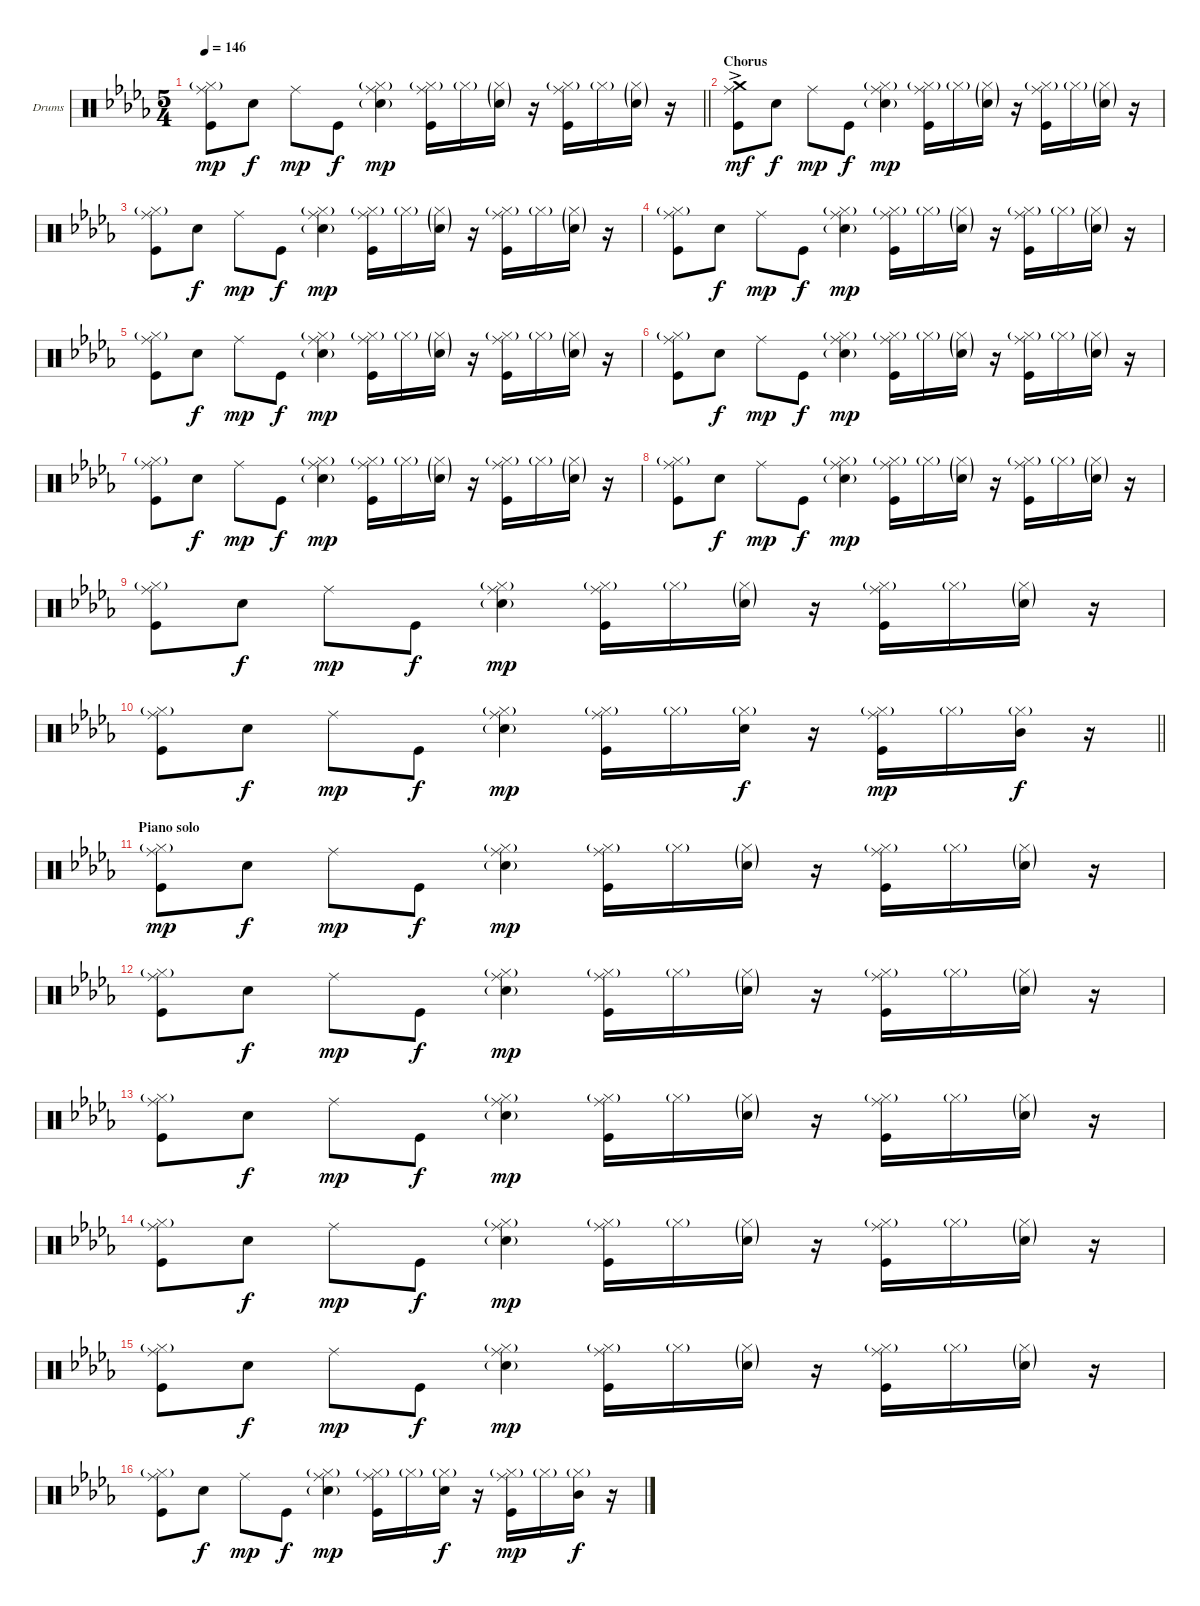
\bracketExtendMode groupsimilarinstruments
\firstSystemTrackNameOrientation horizontal
\otherSystemsTrackNameOrientation horizontal
\track ("Drumkit" "Drums") {instrument percussion}
\staff {score}
\articulation defaults
\ts (5 4)
\tempo 146
\clef neutral
\barLineRight lightlight
\ks db
("Hi-Hat (closed)"{g} "Ride (middle)" "Kick (hit)").8{dy mp} "Snare (hit) 2".8{dy f} "Ride (middle)".8{dy mp} "Kick (hit)".8{dy f} ("Hi-Hat (closed)"{g} "Ride (middle)" "Snare (hit) 2"{g}).4{dy mp} ("Hi-Hat (closed)"{g} "Ride (middle)" "Kick (hit)").16 "Hi-Hat (closed)"{g}.16 ("Hi-Hat (closed)"{g} "Snare (hit) 2"{g}).16 r.16 ("Hi-Hat (closed)"{g} "Ride (middle)" "Kick (hit)").16 "Hi-Hat (closed)"{g}.16 ("Hi-Hat (closed)"{g} "Snare (hit) 2"{g}).16 r.16 |
\section ("" "Chorus")
("Crash medium (hit)"{ac} "Ride (middle)" "Kick (hit)").8{dy mf} "Snare (hit) 2".8{dy f} "Ride (middle)".8{dy mp} "Kick (hit)".8{dy f} ("Hi-Hat (closed)"{g} "Ride (middle)" "Snare (hit) 2"{g}).4{dy mp} ("Hi-Hat (closed)"{g} "Ride (middle)" "Kick (hit)").16 "Hi-Hat (closed)"{g}.16 ("Hi-Hat (closed)"{g} "Snare (hit) 2"{g}).16 r.16 ("Hi-Hat (closed)"{g} "Ride (middle)" "Kick (hit)").16 "Hi-Hat (closed)"{g}.16 ("Hi-Hat (closed)"{g} "Snare (hit) 2"{g}).16 r.16 |
("Hi-Hat (closed)"{g} "Ride (middle)" "Kick (hit)").8 "Snare (hit) 2".8{dy f} "Ride (middle)".8{dy mp} "Kick (hit)".8{dy f} ("Hi-Hat (closed)"{g} "Ride (middle)" "Snare (hit) 2"{g}).4{dy mp} ("Hi-Hat (closed)"{g} "Ride (middle)" "Kick (hit)").16 "Hi-Hat (closed)"{g}.16 ("Hi-Hat (closed)"{g} "Snare (hit) 2"{g}).16 r.16 ("Hi-Hat (closed)"{g} "Ride (middle)" "Kick (hit)").16 "Hi-Hat (closed)"{g}.16 ("Hi-Hat (closed)"{g} "Snare (hit) 2"{g}).16 r.16 |
("Hi-Hat (closed)"{g} "Ride (middle)" "Kick (hit)").8 "Snare (hit) 2".8{dy f} "Ride (middle)".8{dy mp} "Kick (hit)".8{dy f} ("Hi-Hat (closed)"{g} "Ride (middle)" "Snare (hit) 2"{g}).4{dy mp} ("Hi-Hat (closed)"{g} "Ride (middle)" "Kick (hit)").16 "Hi-Hat (closed)"{g}.16 ("Hi-Hat (closed)"{g} "Snare (hit) 2"{g}).16 r.16 ("Hi-Hat (closed)"{g} "Ride (middle)" "Kick (hit)").16 "Hi-Hat (closed)"{g}.16 ("Hi-Hat (closed)"{g} "Snare (hit) 2"{g}).16 r.16 |
("Hi-Hat (closed)"{g} "Ride (middle)" "Kick (hit)").8 "Snare (hit) 2".8{dy f} "Ride (middle)".8{dy mp} "Kick (hit)".8{dy f} ("Hi-Hat (closed)"{g} "Ride (middle)" "Snare (hit) 2"{g}).4{dy mp} ("Hi-Hat (closed)"{g} "Ride (middle)" "Kick (hit)").16 "Hi-Hat (closed)"{g}.16 ("Hi-Hat (closed)"{g} "Snare (hit) 2"{g}).16 r.16 ("Hi-Hat (closed)"{g} "Ride (middle)" "Kick (hit)").16 "Hi-Hat (closed)"{g}.16 ("Hi-Hat (closed)"{g} "Snare (hit) 2"{g}).16 r.16 |
("Hi-Hat (closed)"{g} "Ride (middle)" "Kick (hit)").8 "Snare (hit) 2".8{dy f} "Ride (middle)".8{dy mp} "Kick (hit)".8{dy f} ("Hi-Hat (closed)"{g} "Ride (middle)" "Snare (hit) 2"{g}).4{dy mp} ("Hi-Hat (closed)"{g} "Ride (middle)" "Kick (hit)").16 "Hi-Hat (closed)"{g}.16 ("Hi-Hat (closed)"{g} "Snare (hit) 2"{g}).16 r.16 ("Hi-Hat (closed)"{g} "Ride (middle)" "Kick (hit)").16 "Hi-Hat (closed)"{g}.16 ("Hi-Hat (closed)"{g} "Snare (hit) 2"{g}).16 r.16 |
("Hi-Hat (closed)"{g} "Ride (middle)" "Kick (hit)").8 "Snare (hit) 2".8{dy f} "Ride (middle)".8{dy mp} "Kick (hit)".8{dy f} ("Hi-Hat (closed)"{g} "Ride (middle)" "Snare (hit) 2"{g}).4{dy mp} ("Hi-Hat (closed)"{g} "Ride (middle)" "Kick (hit)").16 "Hi-Hat (closed)"{g}.16 ("Hi-Hat (closed)"{g} "Snare (hit) 2"{g}).16 r.16 ("Hi-Hat (closed)"{g} "Ride (middle)" "Kick (hit)").16 "Hi-Hat (closed)"{g}.16 ("Hi-Hat (closed)"{g} "Snare (hit) 2"{g}).16 r.16 |
("Hi-Hat (closed)"{g} "Ride (middle)" "Kick (hit)").8 "Snare (hit) 2".8{dy f} "Ride (middle)".8{dy mp} "Kick (hit)".8{dy f} ("Hi-Hat (closed)"{g} "Ride (middle)" "Snare (hit) 2"{g}).4{dy mp} ("Hi-Hat (closed)"{g} "Ride (middle)" "Kick (hit)").16 "Hi-Hat (closed)"{g}.16 ("Hi-Hat (closed)"{g} "Snare (hit) 2"{g}).16 r.16 ("Hi-Hat (closed)"{g} "Ride (middle)" "Kick (hit)").16 "Hi-Hat (closed)"{g}.16 ("Hi-Hat (closed)"{g} "Snare (hit) 2"{g}).16 r.16 |
("Hi-Hat (closed)"{g} "Ride (middle)" "Kick (hit)").8 "Snare (hit) 2".8{dy f} "Ride (middle)".8{dy mp} "Kick (hit)".8{dy f} ("Hi-Hat (closed)"{g} "Ride (middle)" "Snare (hit) 2"{g}).4{dy mp} ("Hi-Hat (closed)"{g} "Ride (middle)" "Kick (hit)").16 "Hi-Hat (closed)"{g}.16 ("Hi-Hat (closed)"{g} "Snare (hit) 2"{g}).16 r.16 ("Hi-Hat (closed)"{g} "Ride (middle)" "Kick (hit)").16 "Hi-Hat (closed)"{g}.16 ("Hi-Hat (closed)"{g} "Snare (hit) 2"{g}).16 r.16 |
\barLineRight lightlight
("Hi-Hat (closed)"{g} "Ride (middle)" "Kick (hit)").8 "Snare (hit) 2".8{dy f} "Ride (middle)".8{dy mp} "Kick (hit)".8{dy f} ("Hi-Hat (closed)"{g} "Ride (middle)" "Snare (hit) 2"{g}).4{dy mp} ("Hi-Hat (closed)"{g} "Ride (middle)" "Kick (hit)").16 "Hi-Hat (closed)"{g}.16 ("Hi-Hat (closed)"{g} "Snare (hit) 2").16{dy f} r.16 ("Hi-Hat (closed)"{g} "Ride (middle)" "Kick (hit)").16{dy mp} "Hi-Hat (closed)"{g}.16 ("Hi-Hat (closed)"{g} "Mid Tom (hit)").16{dy f} r.16 |
\section ("" "Piano solo")
("Hi-Hat (closed)"{g} "Ride (middle)" "Kick (hit)").8{dy mp} "Snare (hit) 2".8{dy f} "Ride (middle)".8{dy mp} "Kick (hit)".8{dy f} ("Hi-Hat (closed)"{g} "Ride (middle)" "Snare (hit) 2"{g}).4{dy mp} ("Hi-Hat (closed)"{g} "Ride (middle)" "Kick (hit)").16 "Hi-Hat (closed)"{g}.16 ("Hi-Hat (closed)"{g} "Snare (hit) 2"{g}).16 r.16 ("Hi-Hat (closed)"{g} "Ride (middle)" "Kick (hit)").16 "Hi-Hat (closed)"{g}.16 ("Hi-Hat (closed)"{g} "Snare (hit) 2"{g}).16 r.16 |
("Hi-Hat (closed)"{g} "Ride (middle)" "Kick (hit)").8 "Snare (hit) 2".8{dy f} "Ride (middle)".8{dy mp} "Kick (hit)".8{dy f} ("Hi-Hat (closed)"{g} "Ride (middle)" "Snare (hit) 2"{g}).4{dy mp} ("Hi-Hat (closed)"{g} "Ride (middle)" "Kick (hit)").16 "Hi-Hat (closed)"{g}.16 ("Hi-Hat (closed)"{g} "Snare (hit) 2"{g}).16 r.16 ("Hi-Hat (closed)"{g} "Ride (middle)" "Kick (hit)").16 "Hi-Hat (closed)"{g}.16 ("Hi-Hat (closed)"{g} "Snare (hit) 2"{g}).16 r.16 |
("Hi-Hat (closed)"{g} "Ride (middle)" "Kick (hit)").8 "Snare (hit) 2".8{dy f} "Ride (middle)".8{dy mp} "Kick (hit)".8{dy f} ("Hi-Hat (closed)"{g} "Ride (middle)" "Snare (hit) 2"{g}).4{dy mp} ("Hi-Hat (closed)"{g} "Ride (middle)" "Kick (hit)").16 "Hi-Hat (closed)"{g}.16 ("Hi-Hat (closed)"{g} "Snare (hit) 2"{g}).16 r.16 ("Hi-Hat (closed)"{g} "Ride (middle)" "Kick (hit)").16 "Hi-Hat (closed)"{g}.16 ("Hi-Hat (closed)"{g} "Snare (hit) 2"{g}).16 r.16 |
("Hi-Hat (closed)"{g} "Ride (middle)" "Kick (hit)").8 "Snare (hit) 2".8{dy f} "Ride (middle)".8{dy mp} "Kick (hit)".8{dy f} ("Hi-Hat (closed)"{g} "Ride (middle)" "Snare (hit) 2"{g}).4{dy mp} ("Hi-Hat (closed)"{g} "Ride (middle)" "Kick (hit)").16 "Hi-Hat (closed)"{g}.16 ("Hi-Hat (closed)"{g} "Snare (hit) 2"{g}).16 r.16 ("Hi-Hat (closed)"{g} "Ride (middle)" "Kick (hit)").16 "Hi-Hat (closed)"{g}.16 ("Hi-Hat (closed)"{g} "Snare (hit) 2"{g}).16 r.16 |
("Hi-Hat (closed)"{g} "Ride (middle)" "Kick (hit)").8 "Snare (hit) 2".8{dy f} "Ride (middle)".8{dy mp} "Kick (hit)".8{dy f} ("Hi-Hat (closed)"{g} "Ride (middle)" "Snare (hit) 2"{g}).4{dy mp} ("Hi-Hat (closed)"{g} "Ride (middle)" "Kick (hit)").16 "Hi-Hat (closed)"{g}.16 ("Hi-Hat (closed)"{g} "Snare (hit) 2"{g}).16 r.16 ("Hi-Hat (closed)"{g} "Ride (middle)" "Kick (hit)").16 "Hi-Hat (closed)"{g}.16 ("Hi-Hat (closed)"{g} "Snare (hit) 2"{g}).16 r.16 |
("Hi-Hat (closed)"{g} "Ride (middle)" "Kick (hit)").8 "Snare (hit) 2".8{dy f} "Ride (middle)".8{dy mp} "Kick (hit)".8{dy f} ("Hi-Hat (closed)"{g} "Ride (middle)" "Snare (hit) 2"{g}).4{dy mp} ("Hi-Hat (closed)"{g} "Ride (middle)" "Kick (hit)").16 "Hi-Hat (closed)"{g}.16 ("Hi-Hat (closed)"{g} "Snare (hit) 2").16{dy f} r.16 ("Hi-Hat (closed)"{g} "Ride (middle)" "Kick (hit)").16{dy mp} "Hi-Hat (closed)"{g}.16 ("Hi-Hat (closed)"{g} "Mid Tom (hit)").16{dy f} r.16
